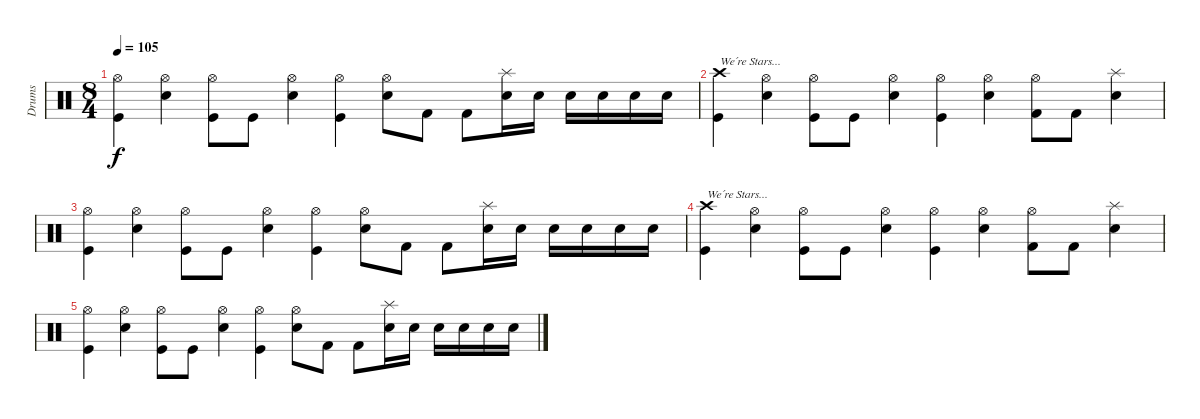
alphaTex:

\track ("Drums" "Drums") {instrument percussion}
\staff {score}
\articulation defaults
\ts (8 4)
\tempo 105
\clef neutral
\ks c
("Hi-Hat (open)" "Kick (hit)").4{dy f} ("Hi-Hat (open)" "Snare (hit) 2").4 ("Hi-Hat (open)" "Kick (hit)").8 "Kick (hit)".8 ("Hi-Hat (open)" "Snare (hit) 2").4 ("Hi-Hat (open)" "Kick (hit)").4 ("Hi-Hat (open)" "Snare (hit) 2").8 "Kick (hit) 2".8 "Kick (hit) 2".8 ("Splash (hit)" "Snare (hit) 2").16 "Snare (hit) 2".16 "Snare (hit) 2".16 "Snare (hit) 2".16 "Snare (hit) 2".16 "Snare (hit) 2".16 |
("Crash high (hit)" "Kick (hit)").4{txt "We´re Stars..."} ("Hi-Hat (open)" "Snare (hit) 2").4 ("Hi-Hat (open)" "Kick (hit)").8 "Kick (hit)".8 ("Hi-Hat (open)" "Snare (hit) 2").4 ("Hi-Hat (open)" "Kick (hit)").4 ("Hi-Hat (open)" "Snare (hit) 2").4 ("Hi-Hat (open)" "Kick (hit) 2").8 "Kick (hit) 2".8 ("Splash (hit)" "Snare (hit) 2").4 |
("Hi-Hat (open)" "Kick (hit)").4 ("Hi-Hat (open)" "Snare (hit) 2").4 ("Hi-Hat (open)" "Kick (hit)").8 "Kick (hit)".8 ("Hi-Hat (open)" "Snare (hit) 2").4 ("Hi-Hat (open)" "Kick (hit)").4 ("Hi-Hat (open)" "Snare (hit) 2").8 "Kick (hit) 2".8 "Kick (hit) 2".8 ("Splash (hit)" "Snare (hit) 2").16 "Snare (hit) 2".16 "Snare (hit) 2".16 "Snare (hit) 2".16 "Snare (hit) 2".16 "Snare (hit) 2".16 |
("Crash high (hit)" "Kick (hit)").4{txt "We´re Stars..."} ("Hi-Hat (open)" "Snare (hit) 2").4 ("Hi-Hat (open)" "Kick (hit)").8 "Kick (hit)".8 ("Hi-Hat (open)" "Snare (hit) 2").4 ("Hi-Hat (open)" "Kick (hit)").4 ("Hi-Hat (open)" "Snare (hit) 2").4 ("Hi-Hat (open)" "Kick (hit) 2").8 "Kick (hit) 2".8 ("Splash (hit)" "Snare (hit) 2").4 |
("Hi-Hat (open)" "Kick (hit)").4 ("Hi-Hat (open)" "Snare (hit) 2").4 ("Hi-Hat (open)" "Kick (hit)").8 "Kick (hit)".8 ("Hi-Hat (open)" "Snare (hit) 2").4 ("Hi-Hat (open)" "Kick (hit)").4 ("Hi-Hat (open)" "Snare (hit) 2").8 "Kick (hit) 2".8 "Kick (hit) 2".8 ("Splash (hit)" "Snare (hit) 2").16 "Snare (hit) 2".16 "Snare (hit) 2".16 "Snare (hit) 2".16 "Snare (hit) 2".16 "Snare (hit) 2".16
